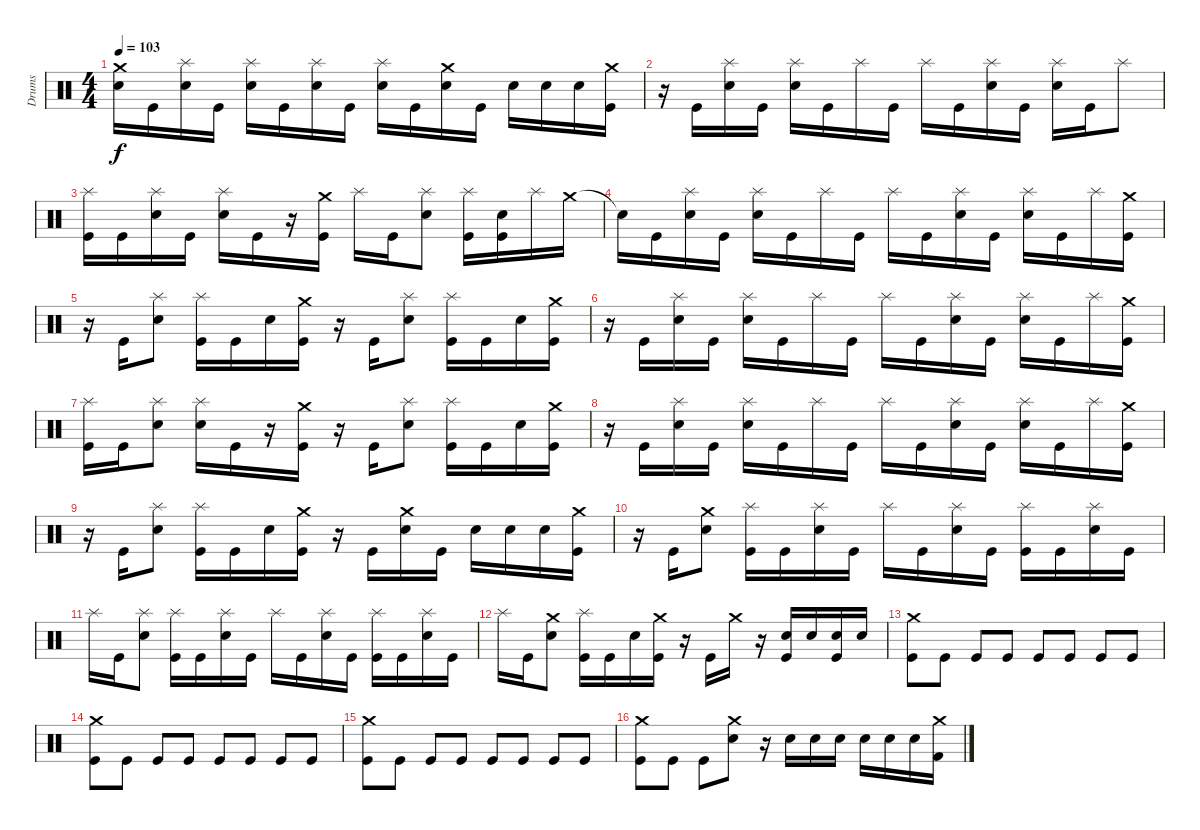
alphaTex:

\track ("Drums" "Drums") {instrument percussion}
\staff {score}
\articulation defaults
\ts (4 4)
\tempo 103
\clef neutral
\ks c
("Crash medium (hit)" "Electric Snare (hit)").16{dy f} "Kick (hit)".16 ("Electric Snare (hit)" "Splash (hit)").16 "Kick (hit)".16 ("Electric Snare (hit)" "Splash (hit)").16 "Kick (hit)".16 ("Electric Snare (hit)" "Splash (hit)").16 "Kick (hit)".16 ("Electric Snare (hit)" "Splash (hit)").16 "Kick (hit)".16 ("Crash medium (hit)" "Electric Snare (hit)").16 "Kick (hit)".16 "Electric Snare (hit)".16 "Electric Snare (hit)".16 "Electric Snare (hit)".16 ("Crash medium (hit)" "Kick (hit)").16 |
r.16 "Kick (hit)".16 ("Splash (hit)" "Electric Snare (hit)").16 "Kick (hit)".16 ("Splash (hit)" "Electric Snare (hit)").16 "Kick (hit)".16 "Splash (hit)".16 "Kick (hit)".16 "Splash (hit)".16 "Kick (hit)".16 ("Splash (hit)" "Electric Snare (hit)").16 "Kick (hit)".16 ("Splash (hit)" "Electric Snare (hit)").16 "Kick (hit)".16 "Splash (hit)".8 |
("Splash (hit)" "Kick (hit)").16 "Kick (hit)".16 ("Splash (hit)" "Electric Snare (hit)").16 "Kick (hit)".16 ("Splash (hit)" "Electric Snare (hit)").16 "Kick (hit)".16 r.16 ("Crash medium (hit)" "Kick (hit)").16 "Splash (hit)".16 "Kick (hit)".16 ("Splash (hit)" "Electric Snare (hit)").8 ("Kick (hit)" "Splash (hit)").16 ("Electric Snare (hit)" "Kick (hit)").16 "Splash (hit)".16 "Crash medium (hit)".16 |
"Snare (hit)"{t}.16 "Kick (hit)".16 ("Splash (hit)" "Electric Snare (hit)").16 "Kick (hit)".16 ("Splash (hit)" "Electric Snare (hit)").16 "Kick (hit)".16 "Splash (hit)".16 "Kick (hit)".16 "Splash (hit)".16 "Kick (hit)".16 ("Splash (hit)" "Electric Snare (hit)").16 "Kick (hit)".16 ("Splash (hit)" "Electric Snare (hit)").16 "Kick (hit)".16 "Splash (hit)".16 ("Crash medium (hit)" "Kick (hit)").16 |
r.16 "Kick (hit)".16 ("Splash (hit)" "Electric Snare (hit)").8 ("Kick (hit)" "Splash (hit)").16 "Kick (hit)".16 "Electric Snare (hit)".16 ("Crash medium (hit)" "Kick (hit)").16 r.16 "Kick (hit)".16 ("Splash (hit)" "Electric Snare (hit)").8 ("Kick (hit)" "Splash (hit)").16 "Kick (hit)".16 "Electric Snare (hit)".16 ("Crash medium (hit)" "Kick (hit)").16 |
r.16 "Kick (hit)".16 ("Splash (hit)" "Electric Snare (hit)").16 "Kick (hit)".16 ("Splash (hit)" "Electric Snare (hit)").16 "Kick (hit)".16 "Splash (hit)".16 "Kick (hit)".16 "Splash (hit)".16 "Kick (hit)".16 ("Splash (hit)" "Electric Snare (hit)").16 "Kick (hit)".16 ("Splash (hit)" "Electric Snare (hit)").16 "Kick (hit)".16 "Splash (hit)".16 ("Kick (hit)" "Crash medium (hit)").16 |
("Splash (hit)" "Kick (hit)").16 "Kick (hit)".16 ("Splash (hit)" "Electric Snare (hit)").8 ("Electric Snare (hit)" "Splash (hit)").16 "Kick (hit)".16 r.16 ("Crash medium (hit)" "Kick (hit)").16 r.16 "Kick (hit)".16 ("Splash (hit)" "Electric Snare (hit)").8 ("Kick (hit)" "Splash (hit)").16 "Kick (hit)".16 "Electric Snare (hit)".16 ("Crash medium (hit)" "Kick (hit)").16 |
r.16 "Kick (hit)".16 ("Splash (hit)" "Electric Snare (hit)").16 "Kick (hit)".16 ("Splash (hit)" "Electric Snare (hit)").16 "Kick (hit)".16 "Splash (hit)".16 "Kick (hit)".16 "Splash (hit)".16 "Kick (hit)".16 ("Splash (hit)" "Electric Snare (hit)").16 "Kick (hit)".16 ("Splash (hit)" "Electric Snare (hit)").16 "Kick (hit)".16 "Splash (hit)".16 ("Crash medium (hit)" "Kick (hit)").16 |
r.16 "Kick (hit)".16 ("Splash (hit)" "Electric Snare (hit)").8 ("Kick (hit)" "Splash (hit)").16 "Kick (hit)".16 "Electric Snare (hit)".16 ("Crash medium (hit)" "Kick (hit)").16 r.16 "Kick (hit)".16 ("Crash medium (hit)" "Electric Snare (hit)").16 "Kick (hit)".16 "Electric Snare (hit)".16 "Electric Snare (hit)".16 "Electric Snare (hit)".16 ("Crash medium (hit)" "Kick (hit)").16 |
r.16 "Kick (hit)".16 ("Crash medium (hit)" "Electric Snare (hit)").8 ("Splash (hit)" "Kick (hit)").16 "Kick (hit)".16 ("Splash (hit)" "Electric Snare (hit)").16 "Kick (hit)".16 "Splash (hit)".16 "Kick (hit)".16 ("Splash (hit)" "Electric Snare (hit)").16 "Kick (hit)".16 ("Kick (hit)" "Splash (hit)").16 "Kick (hit)".16 ("Splash (hit)" "Electric Snare (hit)").16 "Kick (hit)".16 |
"Splash (hit)".16 "Kick (hit)".16 ("Splash (hit)" "Electric Snare (hit)").8 ("Splash (hit)" "Kick (hit)").16 "Kick (hit)".16 ("Splash (hit)" "Electric Snare (hit)").16 "Kick (hit)".16 "Splash (hit)".16 "Kick (hit)".16 ("Splash (hit)" "Electric Snare (hit)").16 "Kick (hit)".16 ("Splash (hit)" "Kick (hit)").16 "Kick (hit)".16 ("Splash (hit)" "Electric Snare (hit)").16 "Kick (hit)".16 |
"Splash (hit)".16 "Kick (hit)".16 ("Crash medium (hit)" "Electric Snare (hit)").8 ("Splash (hit)" "Kick (hit)").16 "Kick (hit)".16 "Electric Snare (hit)".16 ("Crash medium (hit)" "Kick (hit)").16 r.16 "Kick (hit)".16 "Crash medium (hit)".16 r.16 ("Kick (hit)" "Electric Snare (hit)").16 "Electric Snare (hit)".16 ("Kick (hit)" "Electric Snare (hit)").16 "Electric Snare (hit)".16 |
("Crash medium (hit)" "Kick (hit)").8 "Kick (hit)".8 "Kick (hit)".8 "Kick (hit)".8 "Kick (hit)".8 "Kick (hit)".8 "Kick (hit)".8 "Kick (hit)".8 |
("Crash medium (hit)" "Kick (hit)").8 "Kick (hit)".8 "Kick (hit)".8 "Kick (hit)".8 "Kick (hit)".8 "Kick (hit)".8 "Kick (hit)".8 "Kick (hit)".8 |
("Crash medium (hit)" "Kick (hit)").8 "Kick (hit)".8 "Kick (hit)".8 "Kick (hit)".8 "Kick (hit)".8 "Kick (hit)".8 "Kick (hit)".8 "Kick (hit)".8 |
("Crash medium (hit)" "Kick (hit)").8 "Kick (hit)".8 "Kick (hit)".8 ("Electric Snare (hit)" "Crash medium (hit)").8 r.16 "Electric Snare (hit)".16 "Electric Snare (hit)".16 "Electric Snare (hit)".16 "Electric Snare (hit)".16 "Electric Snare (hit)".16 "Electric Snare (hit)".16 ("Crash medium (hit)" "Kick (hit) 2").16
